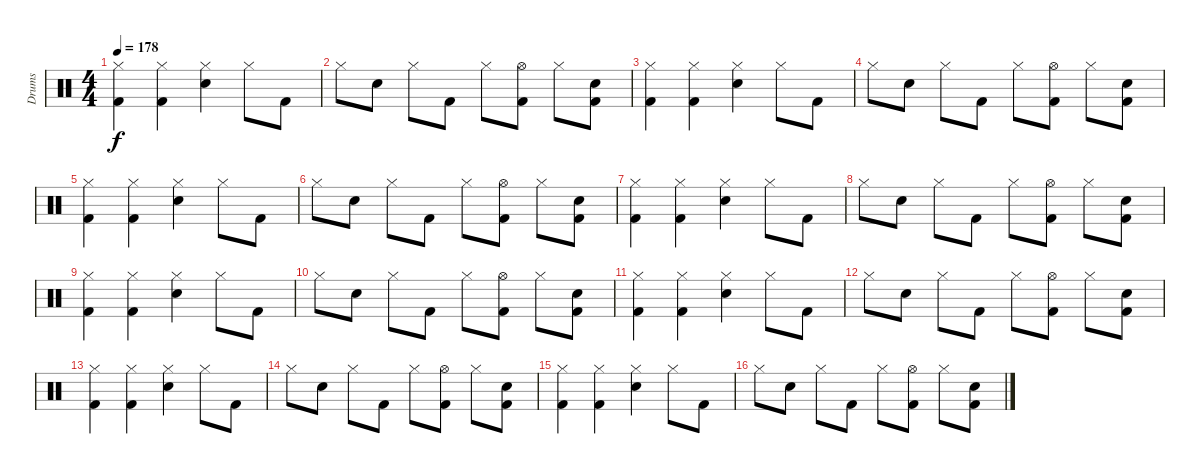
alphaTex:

\track ("Drums" "Drums") {instrument percussion}
\staff {score}
\articulation defaults
\ts (4 4)
\tempo 178
\clef neutral
\ks c
("Hi-Hat (closed)" "Kick (hit) 2").4{dy f} ("Hi-Hat (closed)" "Kick (hit) 2").4 ("Snare (hit) 2" "Hi-Hat (closed)").4 "Hi-Hat (closed)".8 "Kick (hit) 2".8 |
"Hi-Hat (closed)".8 "Snare (hit) 2".8 "Hi-Hat (closed)".8 "Kick (hit) 2".8 "Hi-Hat (closed)".8 ("Kick (hit) 2" "Hi-Hat (open)").8 "Hi-Hat (closed)".8 ("Kick (hit) 2" "Snare (hit) 2").8 |
("Hi-Hat (closed)" "Kick (hit) 2").4 ("Hi-Hat (closed)" "Kick (hit) 2").4 ("Snare (hit) 2" "Hi-Hat (closed)").4 "Hi-Hat (closed)".8 "Kick (hit) 2".8 |
"Hi-Hat (closed)".8 "Snare (hit) 2".8 "Hi-Hat (closed)".8 "Kick (hit) 2".8 "Hi-Hat (closed)".8 ("Kick (hit) 2" "Hi-Hat (open)").8 "Hi-Hat (closed)".8 ("Kick (hit) 2" "Snare (hit) 2").8 |
("Hi-Hat (closed)" "Kick (hit) 2").4 ("Hi-Hat (closed)" "Kick (hit) 2").4 ("Snare (hit) 2" "Hi-Hat (closed)").4 "Hi-Hat (closed)".8 "Kick (hit) 2".8 |
"Hi-Hat (closed)".8 "Snare (hit) 2".8 "Hi-Hat (closed)".8 "Kick (hit) 2".8 "Hi-Hat (closed)".8 ("Kick (hit) 2" "Hi-Hat (open)").8 "Hi-Hat (closed)".8 ("Kick (hit) 2" "Snare (hit) 2").8 |
("Hi-Hat (closed)" "Kick (hit) 2").4 ("Hi-Hat (closed)" "Kick (hit) 2").4 ("Snare (hit) 2" "Hi-Hat (closed)").4 "Hi-Hat (closed)".8 "Kick (hit) 2".8 |
"Hi-Hat (closed)".8 "Snare (hit) 2".8 "Hi-Hat (closed)".8 "Kick (hit) 2".8 "Hi-Hat (closed)".8 ("Kick (hit) 2" "Hi-Hat (open)").8 "Hi-Hat (closed)".8 ("Kick (hit) 2" "Snare (hit) 2").8 |
("Hi-Hat (closed)" "Kick (hit) 2").4 ("Hi-Hat (closed)" "Kick (hit) 2").4 ("Snare (hit) 2" "Hi-Hat (closed)").4 "Hi-Hat (closed)".8 "Kick (hit) 2".8 |
"Hi-Hat (closed)".8 "Snare (hit) 2".8 "Hi-Hat (closed)".8 "Kick (hit) 2".8 "Hi-Hat (closed)".8 ("Kick (hit) 2" "Hi-Hat (open)").8 "Hi-Hat (closed)".8 ("Kick (hit) 2" "Snare (hit) 2").8 |
("Hi-Hat (closed)" "Kick (hit) 2").4 ("Hi-Hat (closed)" "Kick (hit) 2").4 ("Snare (hit) 2" "Hi-Hat (closed)").4 "Hi-Hat (closed)".8 "Kick (hit) 2".8 |
"Hi-Hat (closed)".8 "Snare (hit) 2".8 "Hi-Hat (closed)".8 "Kick (hit) 2".8 "Hi-Hat (closed)".8 ("Kick (hit) 2" "Hi-Hat (open)").8 "Hi-Hat (closed)".8 ("Kick (hit) 2" "Snare (hit) 2").8 |
("Hi-Hat (closed)" "Kick (hit) 2").4 ("Hi-Hat (closed)" "Kick (hit) 2").4 ("Snare (hit) 2" "Hi-Hat (closed)").4 "Hi-Hat (closed)".8 "Kick (hit) 2".8 |
"Hi-Hat (closed)".8 "Snare (hit) 2".8 "Hi-Hat (closed)".8 "Kick (hit) 2".8 "Hi-Hat (closed)".8 ("Kick (hit) 2" "Hi-Hat (open)").8 "Hi-Hat (closed)".8 ("Kick (hit) 2" "Snare (hit) 2").8 |
("Hi-Hat (closed)" "Kick (hit) 2").4 ("Hi-Hat (closed)" "Kick (hit) 2").4 ("Snare (hit) 2" "Hi-Hat (closed)").4 "Hi-Hat (closed)".8 "Kick (hit) 2".8 |
"Hi-Hat (closed)".8 "Snare (hit) 2".8 "Hi-Hat (closed)".8 "Kick (hit) 2".8 "Hi-Hat (closed)".8 ("Kick (hit) 2" "Hi-Hat (open)").8 "Hi-Hat (closed)".8 ("Kick (hit) 2" "Snare (hit) 2").8
